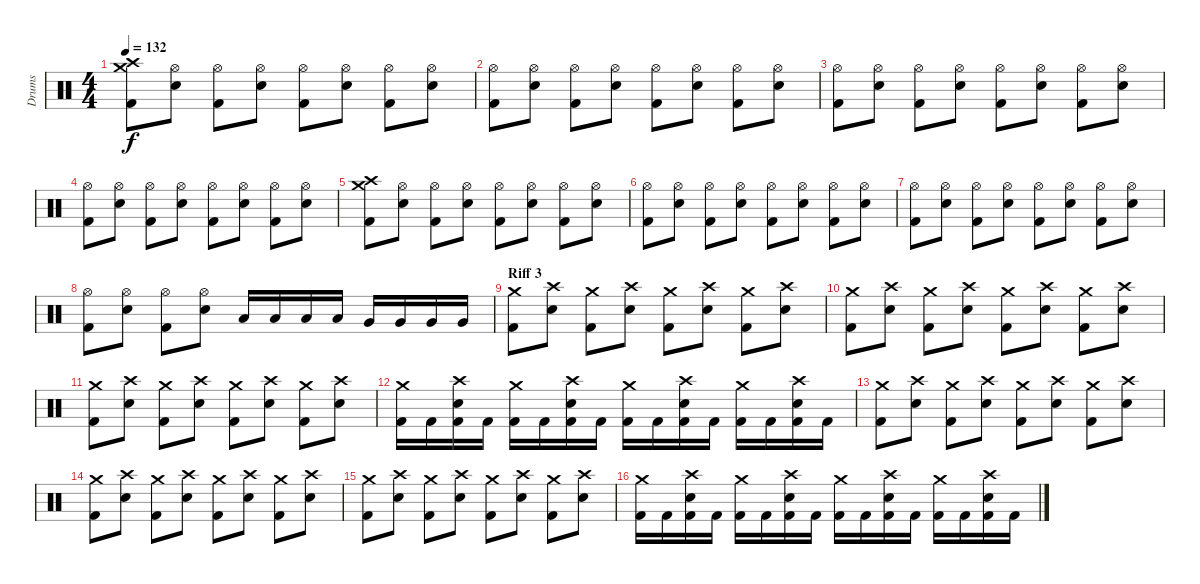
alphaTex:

\track ("Drums" "Drums") {instrument percussion}
\staff {score}
\articulation defaults
\ts (4 4)
\tempo 132
\clef neutral
\ks c
("Crash high (hit)" "Crash medium (hit)" "Kick (hit) 2").8{dy f} ("Hi-Hat (open)" "Electric Snare (hit)").8 ("Hi-Hat (open)" "Kick (hit) 2").8 ("Hi-Hat (open)" "Electric Snare (hit)").8 ("Hi-Hat (open)" "Kick (hit) 2").8 ("Hi-Hat (open)" "Electric Snare (hit)").8 ("Hi-Hat (open)" "Kick (hit) 2").8 ("Hi-Hat (open)" "Electric Snare (hit)").8 |
("Hi-Hat (open)" "Kick (hit) 2").8 ("Hi-Hat (open)" "Electric Snare (hit)").8 ("Hi-Hat (open)" "Kick (hit) 2").8 ("Hi-Hat (open)" "Electric Snare (hit)").8 ("Hi-Hat (open)" "Kick (hit) 2").8 ("Hi-Hat (open)" "Electric Snare (hit)").8 ("Hi-Hat (open)" "Kick (hit) 2").8 ("Hi-Hat (open)" "Electric Snare (hit)").8 |
("Hi-Hat (open)" "Kick (hit) 2").8 ("Hi-Hat (open)" "Electric Snare (hit)").8 ("Hi-Hat (open)" "Kick (hit) 2").8 ("Hi-Hat (open)" "Electric Snare (hit)").8 ("Hi-Hat (open)" "Kick (hit) 2").8 ("Hi-Hat (open)" "Electric Snare (hit)").8 ("Hi-Hat (open)" "Kick (hit) 2").8 ("Hi-Hat (open)" "Electric Snare (hit)").8 |
("Hi-Hat (open)" "Kick (hit) 2").8 ("Hi-Hat (open)" "Electric Snare (hit)").8 ("Hi-Hat (open)" "Kick (hit) 2").8 ("Hi-Hat (open)" "Electric Snare (hit)").8 ("Hi-Hat (open)" "Kick (hit) 2").8 ("Hi-Hat (open)" "Electric Snare (hit)").8 ("Hi-Hat (open)" "Kick (hit) 2").8 ("Hi-Hat (open)" "Electric Snare (hit)").8 |
("Crash high (hit)" "Crash medium (hit)" "Kick (hit) 2").8 ("Hi-Hat (open)" "Electric Snare (hit)").8 ("Hi-Hat (open)" "Kick (hit) 2").8 ("Hi-Hat (open)" "Electric Snare (hit)").8 ("Hi-Hat (open)" "Kick (hit) 2").8 ("Hi-Hat (open)" "Electric Snare (hit)").8 ("Hi-Hat (open)" "Kick (hit) 2").8 ("Hi-Hat (open)" "Electric Snare (hit)").8 |
("Hi-Hat (open)" "Kick (hit) 2").8 ("Hi-Hat (open)" "Electric Snare (hit)").8 ("Hi-Hat (open)" "Kick (hit) 2").8 ("Hi-Hat (open)" "Electric Snare (hit)").8 ("Hi-Hat (open)" "Kick (hit) 2").8 ("Hi-Hat (open)" "Electric Snare (hit)").8 ("Hi-Hat (open)" "Kick (hit) 2").8 ("Hi-Hat (open)" "Electric Snare (hit)").8 |
("Hi-Hat (open)" "Kick (hit) 2").8 ("Hi-Hat (open)" "Electric Snare (hit)").8 ("Hi-Hat (open)" "Kick (hit) 2").8 ("Hi-Hat (open)" "Electric Snare (hit)").8 ("Hi-Hat (open)" "Kick (hit) 2").8 ("Hi-Hat (open)" "Electric Snare (hit)").8 ("Hi-Hat (open)" "Kick (hit) 2").8 ("Hi-Hat (open)" "Electric Snare (hit)").8 |
("Hi-Hat (open)" "Kick (hit) 2").8 ("Hi-Hat (open)" "Electric Snare (hit)").8 ("Hi-Hat (open)" "Kick (hit) 2").8 ("Hi-Hat (open)" "Electric Snare (hit)").8 "Low Tom (hit)".16 "Low Tom (hit)".16 "Low Tom (hit)".16 "Low Tom (hit)".16 "Very Low Tom (hit)".16 "Very Low Tom (hit)".16 "Very Low Tom (hit)".16 "Very Low Tom (hit)".16 |
\section ("" "Riff 3")
("Crash medium (hit)" "Kick (hit) 2").8 ("Crash high (hit)" "Electric Snare (hit)").8 ("Crash medium (hit)" "Kick (hit) 2").8 ("Crash high (hit)" "Electric Snare (hit)").8 ("Crash medium (hit)" "Kick (hit) 2").8 ("Crash high (hit)" "Electric Snare (hit)").8 ("Crash medium (hit)" "Kick (hit) 2").8 ("Crash high (hit)" "Electric Snare (hit)").8 |
("Crash medium (hit)" "Kick (hit) 2").8 ("Crash high (hit)" "Electric Snare (hit)").8 ("Crash medium (hit)" "Kick (hit) 2").8 ("Crash high (hit)" "Electric Snare (hit)").8 ("Crash medium (hit)" "Kick (hit) 2").8 ("Crash high (hit)" "Electric Snare (hit)").8 ("Crash medium (hit)" "Kick (hit) 2").8 ("Crash high (hit)" "Electric Snare (hit)").8 |
("Crash medium (hit)" "Kick (hit) 2").8 ("Crash high (hit)" "Electric Snare (hit)").8 ("Crash medium (hit)" "Kick (hit) 2").8 ("Crash high (hit)" "Electric Snare (hit)").8 ("Crash medium (hit)" "Kick (hit) 2").8 ("Crash high (hit)" "Electric Snare (hit)").8 ("Crash medium (hit)" "Kick (hit) 2").8 ("Crash high (hit)" "Electric Snare (hit)").8 |
("Crash medium (hit)" "Kick (hit) 2").16 "Kick (hit) 2".16 ("Crash high (hit)" "Kick (hit) 2" "Electric Snare (hit)").16 "Kick (hit) 2".16 ("Crash medium (hit)" "Kick (hit) 2").16 "Kick (hit) 2".16 ("Crash high (hit)" "Kick (hit) 2" "Electric Snare (hit)").16 "Kick (hit) 2".16 ("Crash medium (hit)" "Kick (hit) 2").16 "Kick (hit) 2".16 ("Crash high (hit)" "Kick (hit) 2" "Electric Snare (hit)").16 "Kick (hit) 2".16 ("Crash medium (hit)" "Kick (hit) 2").16 "Kick (hit) 2".16 ("Crash high (hit)" "Kick (hit) 2" "Electric Snare (hit)").16 "Kick (hit) 2".16 |
("Crash medium (hit)" "Kick (hit) 2").8 ("Crash high (hit)" "Electric Snare (hit)").8 ("Crash medium (hit)" "Kick (hit) 2").8 ("Crash high (hit)" "Electric Snare (hit)").8 ("Crash medium (hit)" "Kick (hit) 2").8 ("Crash high (hit)" "Electric Snare (hit)").8 ("Crash medium (hit)" "Kick (hit) 2").8 ("Crash high (hit)" "Electric Snare (hit)").8 |
("Crash medium (hit)" "Kick (hit) 2").8 ("Crash high (hit)" "Electric Snare (hit)").8 ("Crash medium (hit)" "Kick (hit) 2").8 ("Crash high (hit)" "Electric Snare (hit)").8 ("Crash medium (hit)" "Kick (hit) 2").8 ("Crash high (hit)" "Electric Snare (hit)").8 ("Crash medium (hit)" "Kick (hit) 2").8 ("Crash high (hit)" "Electric Snare (hit)").8 |
("Crash medium (hit)" "Kick (hit) 2").8 ("Crash high (hit)" "Electric Snare (hit)").8 ("Crash medium (hit)" "Kick (hit) 2").8 ("Crash high (hit)" "Electric Snare (hit)").8 ("Crash medium (hit)" "Kick (hit) 2").8 ("Crash high (hit)" "Electric Snare (hit)").8 ("Crash medium (hit)" "Kick (hit) 2").8 ("Crash high (hit)" "Electric Snare (hit)").8 |
("Crash medium (hit)" "Kick (hit) 2").16 "Kick (hit) 2".16 ("Crash high (hit)" "Kick (hit) 2" "Electric Snare (hit)").16 "Kick (hit) 2".16 ("Crash medium (hit)" "Kick (hit) 2").16 "Kick (hit) 2".16 ("Crash high (hit)" "Kick (hit) 2" "Electric Snare (hit)").16 "Kick (hit) 2".16 ("Crash medium (hit)" "Kick (hit) 2").16 "Kick (hit) 2".16 ("Crash high (hit)" "Kick (hit) 2" "Electric Snare (hit)").16 "Kick (hit) 2".16 ("Crash medium (hit)" "Kick (hit) 2").16 "Kick (hit) 2".16 ("Crash high (hit)" "Kick (hit) 2" "Electric Snare (hit)").16 "Kick (hit) 2".16
